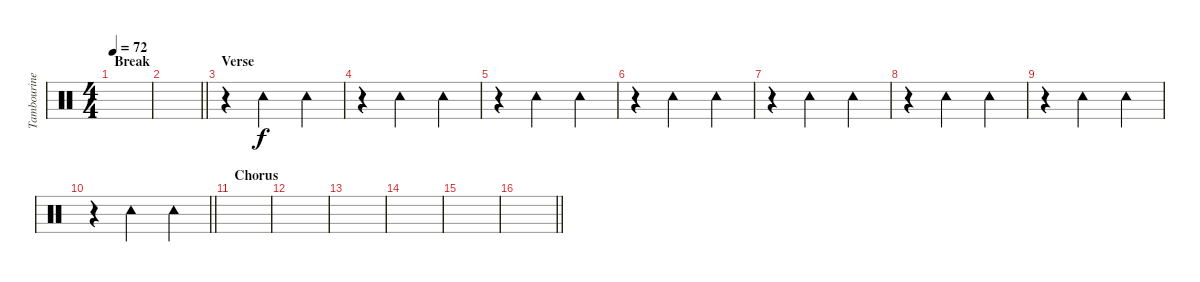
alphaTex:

\track ("Tambourine" "Tambourine") {instrument percussion}
\staff {score}
\articulation defaults
\ts (4 4)
\section ("" "Break")
\tempo 72
\clef neutral
\ks c
|
\barLineRight lightlight
|
\section ("" "Verse")
r.4 "Tambourine (hit)".2 "Tambourine (hit)".4 |
r.4 "Tambourine (hit)".2 "Tambourine (hit)".4 |
r.4 "Tambourine (hit)".2 "Tambourine (hit)".4 |
r.4 "Tambourine (hit)".2 "Tambourine (hit)".4 |
r.4 "Tambourine (hit)".2 "Tambourine (hit)".4 |
r.4 "Tambourine (hit)".2 "Tambourine (hit)".4 |
r.4 "Tambourine (hit)".2 "Tambourine (hit)".4 |
\barLineRight lightlight
r.4 "Tambourine (hit)".2 "Tambourine (hit)".4 |
\section ("" "Chorus")
|
|
|
|
|
\barLineRight lightlight
